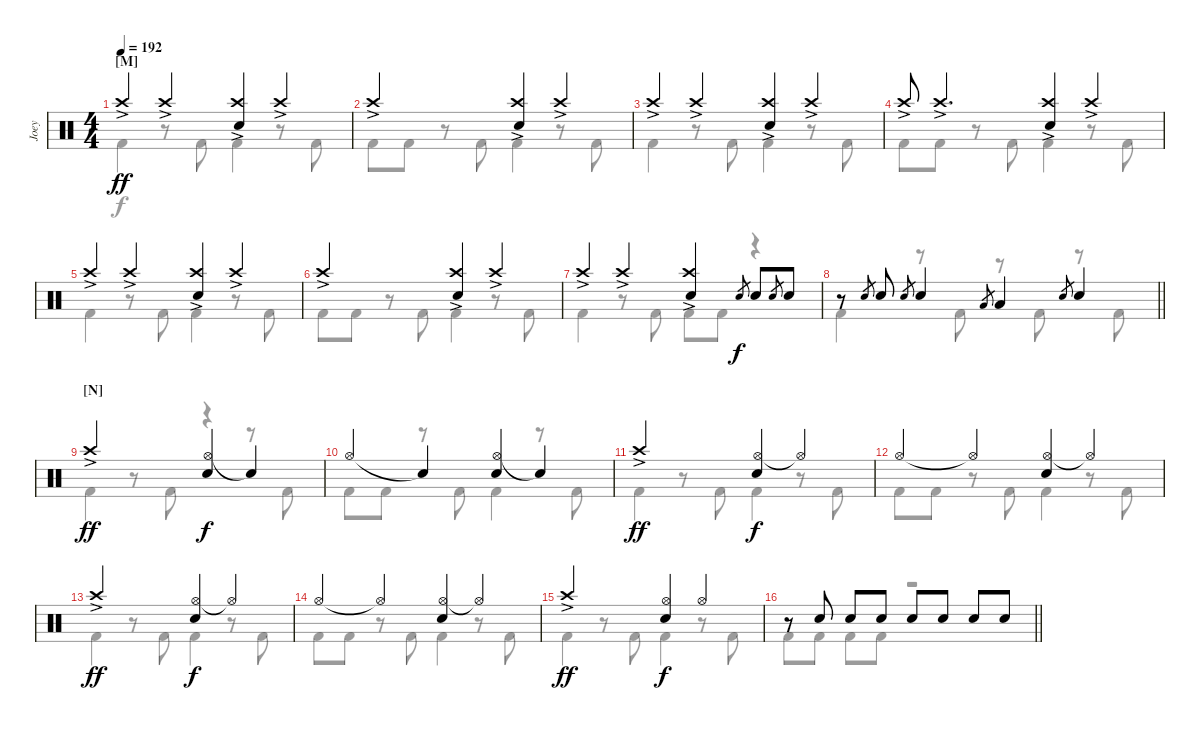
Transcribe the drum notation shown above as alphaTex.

\track ("Joey" "Joey") {instrument percussion}
\staff {score}
\articulation defaults
\voice
\ts (4 4)
\section ("" "[M]")
\tempo 192
\clef neutral
\ks c "Crash high (hit)"{ac}.4{dy ff} "Crash high (hit)"{ac}.4
("Crash high (hit)"{ac} "Snare (hit) 2").4 "Crash high (hit)"{ac}.4 |
"Crash high (hit)"{ac}.2 ("Crash high (hit)"{ac} "Snare (hit) 2").4 "Crash high (hit)"{ac}.4 |
"Crash high (hit)"{ac}.4 "Crash high (hit)"{ac}.4 ("Crash high (hit)"{ac} "Snare (hit) 2").4 "Crash high (hit)"{ac}.4 |
"Crash high (hit)"{ac}.8 "Crash high (hit)"{ac}.4{d} ("Crash high (hit)"{ac} "Snare (hit) 2").4 "Crash high (hit)"{ac}.4 |
"Crash high (hit)"{ac}.4 "Crash high (hit)"{ac}.4 ("Crash high (hit)"{ac} "Snare (hit) 2").4 "Crash high (hit)"{ac}.4 |
"Crash high (hit)"{ac}.2 ("Crash high (hit)"{ac} "Snare (hit) 2").4 "Crash high (hit)"{ac}.4 |
"Crash high (hit)"{ac}.4 "Crash high (hit)"{ac}.4 ("Crash high (hit)"{ac} "Snare (hit) 2").4 "Snare (hit) 2".8{gr dy f} "Snare (hit) 2".8 "Snare (hit) 2".8{gr} "Snare (hit) 2".8 |
\barLineRight lightlight
r.8 "Snare (hit) 2".8{gr} "Snare (hit) 2".8 "Snare (hit) 2".8{gr} "Snare (hit) 2".4 "Low Tom (hit)".8{gr} "Low Tom (hit)".4 "Snare (hit) 2".8{gr} "Snare (hit) 2".4 |
\section ("" "[N]")
"Crash high (hit)"{ac}.2{dy ff} ("Hi-Hat (open)" "Snare (hit) 2").4{dy f} "Snare (hit)"{t}.4 |
"Hi-Hat (open)".4 "Snare (hit)"{t}.4 ("Hi-Hat (open)" "Snare (hit) 2").4 "Snare (hit)"{t}.4 |
"Crash high (hit)"{ac}.2{dy ff} ("Hi-Hat (open)" "Snare (hit) 2").4{dy f} "Hi-Hat (open)"{t}.4 |
"Hi-Hat (open)".4 "Hi-Hat (open)"{t}.4 ("Hi-Hat (open)" "Snare (hit) 2").4 "Hi-Hat (open)"{t}.4 |
"Crash high (hit)"{ac}.2{dy ff} ("Hi-Hat (open)" "Snare (hit) 2").4{dy f} "Hi-Hat (open)"{t}.4 |
"Hi-Hat (open)".4 "Hi-Hat (open)"{t}.4 ("Hi-Hat (open)" "Snare (hit) 2").4 "Hi-Hat (open)"{t}.4 |
"Crash high (hit)"{ac}.2{dy ff} ("Hi-Hat (open)" "Snare (hit) 2").4{dy f} "Hi-Hat (open)".4 |
\barLineRight lightlight
r.8 "Snare (hit) 2".8 "Snare (hit) 2".8 "Snare (hit) 2".8 "Snare (hit) 2".8 "Snare (hit) 2".8 "Snare (hit) 2".8 "Snare (hit) 2".8
\voice
\clef neutral
\ottava regular
\simile none
\ks c "Kick (hit) 2".4{dy f}
r.8 "Kick (hit) 2".8 "Kick (hit) 2".4 r.8 "Kick (hit) 2".8 |
"Kick (hit) 2".8 "Kick (hit) 2".8 r.8 "Kick (hit) 2".8 "Kick (hit) 2".4 r.8 "Kick (hit) 2".8 |
"Kick (hit) 2".4 r.8 "Kick (hit) 2".8 "Kick (hit) 2".4 r.8 "Kick (hit) 2".8 |
"Kick (hit) 2".8 "Kick (hit) 2".8 r.8 "Kick (hit) 2".8 "Kick (hit) 2".4 r.8 "Kick (hit) 2".8 |
"Kick (hit) 2".4 r.8 "Kick (hit) 2".8 "Kick (hit) 2".4 r.8 "Kick (hit) 2".8 |
"Kick (hit) 2".8 "Kick (hit) 2".8 r.8 "Kick (hit) 2".8 "Kick (hit) 2".4 r.8 "Kick (hit) 2".8 |
"Kick (hit) 2".4 r.8 "Kick (hit) 2".8 "Kick (hit) 2".8 "Kick (hit) 2".8 r.4 |
\barLineRight lightlight "Kick (hit) 2".4
r.8 "Kick (hit) 2".8 r.8 "Kick (hit) 2".8 r.8 "Kick (hit) 2".8 |
"Kick (hit) 2".4 r.8 "Kick (hit) 2".8 r.4 r.8 "Kick (hit) 2".8 |
"Kick (hit) 2".8 "Kick (hit) 2".8 r.8 "Kick (hit) 2".8 "Kick (hit) 2".4 r.8 "Kick (hit) 2".8 |
"Kick (hit) 2".4 r.8 "Kick (hit) 2".8 "Kick (hit) 2".4 r.8 "Kick (hit) 2".8 |
"Kick (hit) 2".8 "Kick (hit) 2".8 r.8 "Kick (hit) 2".8 "Kick (hit) 2".4 r.8 "Kick (hit) 2".8 |
"Kick (hit) 2".4 r.8 "Kick (hit) 2".8 "Kick (hit) 2".4 r.8 "Kick (hit) 2".8 |
"Kick (hit) 2".8 "Kick (hit) 2".8 r.8 "Kick (hit) 2".8 "Kick (hit) 2".4 r.8 "Kick (hit) 2".8 |
"Kick (hit) 2".4 r.8 "Kick (hit) 2".8 "Kick (hit) 2".4 r.8 "Kick (hit) 2".8 |
\barLineRight lightlight "Kick (hit) 2".8 "Kick (hit) 2".8 "Kick (hit) 2".8 "Kick (hit) 2".8
r.2
